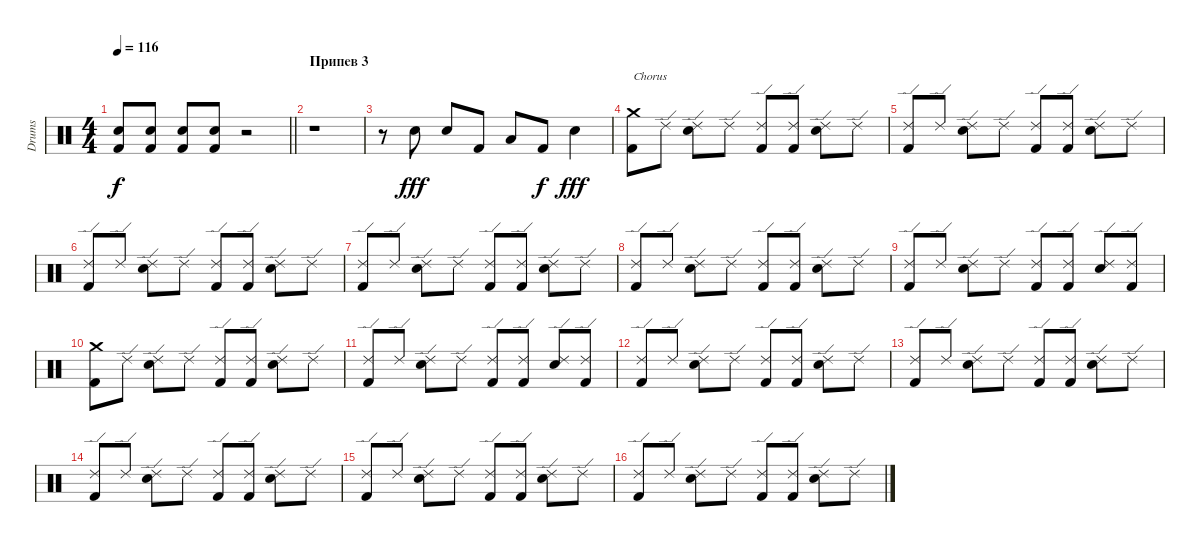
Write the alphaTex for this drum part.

\track ("Drums" "Drums") {instrument percussion}
\staff {score}
\articulation defaults
\ts (4 4)
\tempo 116
\clef neutral
\barLineRight lightlight
\ks c
("Snare (hit) 2" "Kick (hit) 2").8{dy f} ("Snare (hit) 2" "Kick (hit) 2").8 ("Snare (hit) 2" "Kick (hit) 2").8 ("Snare (hit) 2" "Kick (hit) 2").8 r.2 |
\section ("" "Припев 3")
r.1 |
r.8 "Snare (hit) 2".8{dy fff} "Snare (hit) 2".8 "Kick (hit) 2".8 "Low Tom (hit)".8 "Kick (hit) 2".8{dy f} "Snare (hit) 2".4{dy fff} |
("Crash medium (hit)" "Kick (hit) 2").8{txt "Chorus"} "Ride (edge) 2".8 ("Ride (edge) 2" "Snare (hit) 2").8 "Ride (edge) 2".8 ("Ride (edge) 2" "Kick (hit) 2").8 ("Ride (edge) 2" "Kick (hit) 2").8 ("Ride (edge) 2" "Snare (hit) 2").8 "Ride (edge) 2".8 |
("Ride (edge) 2" "Kick (hit) 2").8 "Ride (edge) 2".8 ("Ride (edge) 2" "Snare (hit) 2").8 "Ride (edge) 2".8 ("Ride (edge) 2" "Kick (hit) 2").8 ("Ride (edge) 2" "Kick (hit) 2").8 ("Ride (edge) 2" "Snare (hit) 2").8 "Ride (edge) 2".8 |
("Ride (edge) 2" "Kick (hit) 2").8 "Ride (edge) 2".8 ("Ride (edge) 2" "Snare (hit) 2").8 "Ride (edge) 2".8 ("Ride (edge) 2" "Kick (hit) 2").8 ("Ride (edge) 2" "Kick (hit) 2").8 ("Ride (edge) 2" "Snare (hit) 2").8 "Ride (edge) 2".8 |
("Ride (edge) 2" "Kick (hit) 2").8 "Ride (edge) 2".8 ("Ride (edge) 2" "Snare (hit) 2").8 "Ride (edge) 2".8 ("Ride (edge) 2" "Kick (hit) 2").8 ("Ride (edge) 2" "Kick (hit) 2").8 ("Ride (edge) 2" "Snare (hit) 2").8 "Ride (edge) 2".8 |
("Ride (edge) 2" "Kick (hit) 2").8 "Ride (edge) 2".8 ("Ride (edge) 2" "Snare (hit) 2").8 "Ride (edge) 2".8 ("Ride (edge) 2" "Kick (hit) 2").8 ("Ride (edge) 2" "Kick (hit) 2").8 ("Ride (edge) 2" "Snare (hit) 2").8 "Ride (edge) 2".8 |
("Ride (edge) 2" "Kick (hit) 2").8 "Ride (edge) 2".8 ("Ride (edge) 2" "Snare (hit) 2").8 "Ride (edge) 2".8 ("Ride (edge) 2" "Kick (hit) 2").8 ("Ride (edge) 2" "Kick (hit) 2").8 ("Ride (edge) 2" "Snare (hit) 2").8 ("Ride (edge) 2" "Kick (hit) 2").8 |
("Crash medium (hit)" "Kick (hit) 2").8 "Ride (edge) 2".8 ("Ride (edge) 2" "Snare (hit) 2").8 "Ride (edge) 2".8 ("Ride (edge) 2" "Kick (hit) 2").8 ("Ride (edge) 2" "Kick (hit) 2").8 ("Ride (edge) 2" "Snare (hit) 2").8 "Ride (edge) 2".8 |
("Ride (edge) 2" "Kick (hit) 2").8 "Ride (edge) 2".8 ("Ride (edge) 2" "Snare (hit) 2").8 "Ride (edge) 2".8 ("Ride (edge) 2" "Kick (hit) 2").8 ("Ride (edge) 2" "Kick (hit) 2").8 ("Ride (edge) 2" "Snare (hit) 2").8 ("Ride (edge) 2" "Kick (hit) 2").8 |
("Ride (edge) 2" "Kick (hit) 2").8 "Ride (edge) 2".8 ("Ride (edge) 2" "Snare (hit) 2").8 "Ride (edge) 2".8 ("Ride (edge) 2" "Kick (hit) 2").8 ("Ride (edge) 2" "Kick (hit) 2").8 ("Ride (edge) 2" "Snare (hit) 2").8 "Ride (edge) 2".8 |
("Ride (edge) 2" "Kick (hit) 2").8 "Ride (edge) 2".8 ("Ride (edge) 2" "Snare (hit) 2").8 "Ride (edge) 2".8 ("Ride (edge) 2" "Kick (hit) 2").8 ("Ride (edge) 2" "Kick (hit) 2").8 ("Ride (edge) 2" "Snare (hit) 2").8 "Ride (edge) 2".8 |
("Ride (edge) 2" "Kick (hit) 2").8 "Ride (edge) 2".8 ("Ride (edge) 2" "Snare (hit) 2").8 "Ride (edge) 2".8 ("Ride (edge) 2" "Kick (hit) 2").8 ("Ride (edge) 2" "Kick (hit) 2").8 ("Ride (edge) 2" "Snare (hit) 2").8 "Ride (edge) 2".8 |
("Ride (edge) 2" "Kick (hit) 2").8 "Ride (edge) 2".8 ("Ride (edge) 2" "Snare (hit) 2").8 "Ride (edge) 2".8 ("Ride (edge) 2" "Kick (hit) 2").8 ("Ride (edge) 2" "Kick (hit) 2").8 ("Ride (edge) 2" "Snare (hit) 2").8 "Ride (edge) 2".8 |
("Ride (edge) 2" "Kick (hit) 2").8 "Ride (edge) 2".8 ("Ride (edge) 2" "Snare (hit) 2").8 "Ride (edge) 2".8 ("Ride (edge) 2" "Kick (hit) 2").8 ("Ride (edge) 2" "Kick (hit) 2").8 ("Ride (edge) 2" "Snare (hit) 2").8 "Ride (edge) 2".8
